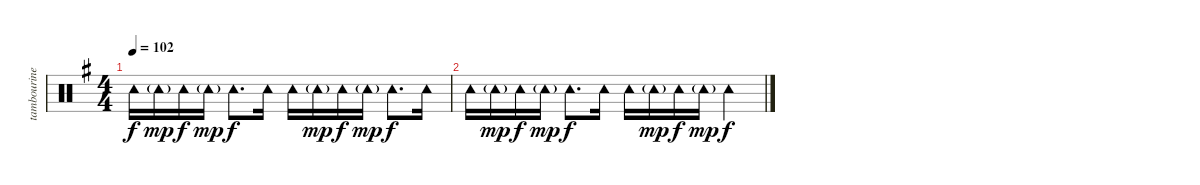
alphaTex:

\track ("tambourine" "tambourine") {instrument percussion}
\staff {score}
\articulation defaults
\ts (4 4)
\tempo 102
\clef neutral
\ks eminor "Tambourine (hit)".16{dy f} "Tambourine (hit)"{g}.16{dy mp} "Tambourine (hit)".16{dy f} "Tambourine (hit)"{g}.16{dy mp} "Tambourine (hit)".8{d dy f} "Tambourine (hit)".16 "Tambourine (hit)".16 "Tambourine (hit)"{g}.16{dy mp} "Tambourine (hit)".16{dy f} "Tambourine (hit)"{g}.16{dy mp} "Tambourine (hit)".8{d dy f} "Tambourine (hit)".16
|
"Tambourine (hit)".16 "Tambourine (hit)"{g}.16{dy mp} "Tambourine (hit)".16{dy f} "Tambourine (hit)"{g}.16{dy mp} "Tambourine (hit)".8{d dy f} "Tambourine (hit)".16 "Tambourine (hit)".16 "Tambourine (hit)"{g}.16{dy mp} "Tambourine (hit)".16{dy f} "Tambourine (hit)"{g}.16{dy mp} "Tambourine (hit)".4{dy f}
